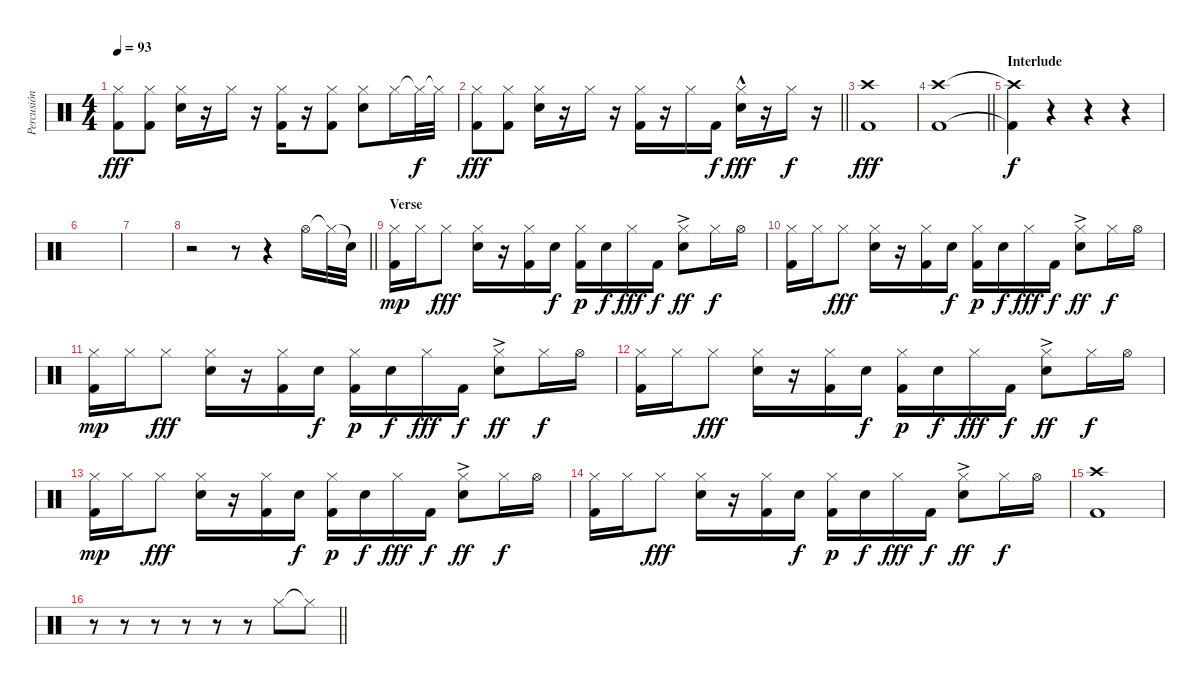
\track ("Percusión" "Percusión") {instrument percussion}
\staff {score}
\articulation defaults
\ts (4 4)
\tempo 93
\clef neutral
\ks c
("Hi-Hat (closed)" "Kick (hit) 2").8{dy fff} ("Hi-Hat (closed)" "Kick (hit) 2").8 ("Hi-Hat (closed)" "Snare (hit) 2").16 r.16 "Hi-Hat (closed)".16 r.16 ("Hi-Hat (closed)" "Kick (hit) 2").16 r.16 ("Hi-Hat (closed)" "Kick (hit) 2").8 ("Hi-Hat (closed)" "Snare (hit) 2").8 "Hi-Hat (closed)".16 "Hi-Hat (closed)"{t}.32{dy f} "Hi-Hat (closed)"{t}.32 |
\barLineRight lightlight
("Hi-Hat (closed)" "Kick (hit) 2").8{dy fff} ("Hi-Hat (closed)" "Kick (hit) 2").8 ("Hi-Hat (closed)" "Snare (hit) 2").16 r.16 "Hi-Hat (closed)".16 r.16 ("Hi-Hat (closed)" "Kick (hit) 2").16 r.16 "Hi-Hat (closed)".16 "Kick (hit) 2".16{dy f} ("Hi-Hat (closed)" "Snare (hit) 2"{hac}).16{dy fff} r.16 "Hi-Hat (closed)".16{dy f} r.16 |
("Crash high (hit)" "Kick (hit) 2").1{dy fff} |
\barLineRight lightlight
("Crash high (hit)" "Kick (hit) 2").1 |
\section ("" "Interlude")
("Crash high (hit)"{t} "Kick (hit) 2"{t}).4{dy f} r.4 r.4 r.4 |
|
|
\barLineRight lightlight
r.2 r.8 r.4 "Hi-Hat (open)".16 "Hi-Hat (closed)"{t}.32 "Snare (hit)"{t}.32 |
\section ("" "Verse")
("Hi-Hat (closed)" "Kick (hit) 2").16{dy mp} "Hi-Hat (closed)".16 "Hi-Hat (closed)".8{dy fff} ("Hi-Hat (closed)" "Snare (hit) 2").16 r.16 ("Hi-Hat (closed)" "Kick (hit) 2").16 "Snare (hit) 2".16{dy f} ("Hi-Hat (closed)" "Kick (hit) 2").16{dy p} "Snare (hit) 2".16{dy f} "Hi-Hat (closed)".16{dy fff} "Kick (hit) 2".16{dy f} ("Hi-Hat (closed)" "Snare (hit) 2"{ac}).8{dy ff} "Hi-Hat (closed)".16{dy f} "Hi-Hat (open)".16 |
("Hi-Hat (closed)" "Kick (hit) 2").16 "Hi-Hat (closed)".16 "Hi-Hat (closed)".8{dy fff} ("Hi-Hat (closed)" "Snare (hit) 2").16 r.16 ("Hi-Hat (closed)" "Kick (hit) 2").16 "Snare (hit) 2".16{dy f} ("Hi-Hat (closed)" "Kick (hit) 2").16{dy p} "Snare (hit) 2".16{dy f} "Hi-Hat (closed)".16{dy fff} "Kick (hit) 2".16{dy f} ("Hi-Hat (closed)" "Snare (hit) 2"{ac}).8{dy ff} "Hi-Hat (closed)".16{dy f} "Hi-Hat (open)".16 |
("Hi-Hat (closed)" "Kick (hit) 2").16{dy mp} "Hi-Hat (closed)".16 "Hi-Hat (closed)".8{dy fff} ("Hi-Hat (closed)" "Snare (hit) 2").16 r.16 ("Hi-Hat (closed)" "Kick (hit) 2").16 "Snare (hit) 2".16{dy f} ("Hi-Hat (closed)" "Kick (hit) 2").16{dy p} "Snare (hit) 2".16{dy f} "Hi-Hat (closed)".16{dy fff} "Kick (hit) 2".16{dy f} ("Hi-Hat (closed)" "Snare (hit) 2"{ac}).8{dy ff} "Hi-Hat (closed)".16{dy f} "Hi-Hat (open)".16 |
("Hi-Hat (closed)" "Kick (hit) 2").16 "Hi-Hat (closed)".16 "Hi-Hat (closed)".8{dy fff} ("Hi-Hat (closed)" "Snare (hit) 2").16 r.16 ("Hi-Hat (closed)" "Kick (hit) 2").16 "Snare (hit) 2".16{dy f} ("Hi-Hat (closed)" "Kick (hit) 2").16{dy p} "Snare (hit) 2".16{dy f} "Hi-Hat (closed)".16{dy fff} "Kick (hit) 2".16{dy f} ("Hi-Hat (closed)" "Snare (hit) 2"{ac}).8{dy ff} "Hi-Hat (closed)".16{dy f} "Hi-Hat (open)".16 |
("Hi-Hat (closed)" "Kick (hit) 2").16{dy mp} "Hi-Hat (closed)".16 "Hi-Hat (closed)".8{dy fff} ("Hi-Hat (closed)" "Snare (hit) 2").16 r.16 ("Hi-Hat (closed)" "Kick (hit) 2").16 "Snare (hit) 2".16{dy f} ("Hi-Hat (closed)" "Kick (hit) 2").16{dy p} "Snare (hit) 2".16{dy f} "Hi-Hat (closed)".16{dy fff} "Kick (hit) 2".16{dy f} ("Hi-Hat (closed)" "Snare (hit) 2"{ac}).8{dy ff} "Hi-Hat (closed)".16{dy f} "Hi-Hat (open)".16 |
("Hi-Hat (closed)" "Kick (hit) 2").16 "Hi-Hat (closed)".16 "Hi-Hat (closed)".8{dy fff} ("Hi-Hat (closed)" "Snare (hit) 2").16 r.16 ("Hi-Hat (closed)" "Kick (hit) 2").16 "Snare (hit) 2".16{dy f} ("Hi-Hat (closed)" "Kick (hit) 2").16{dy p} "Snare (hit) 2".16{dy f} "Hi-Hat (closed)".16{dy fff} "Kick (hit) 2".16{dy f} ("Hi-Hat (closed)" "Snare (hit) 2"{ac}).8{dy ff} "Hi-Hat (closed)".16{dy f} "Hi-Hat (open)".16 |
("Crash high (hit)" "Kick (hit) 2").1 |
\barLineRight lightlight
r.8 r.8 r.8 r.8 r.8 r.8 "Hi-Hat (closed)".8 "Hi-Hat (closed)"{t}.8
